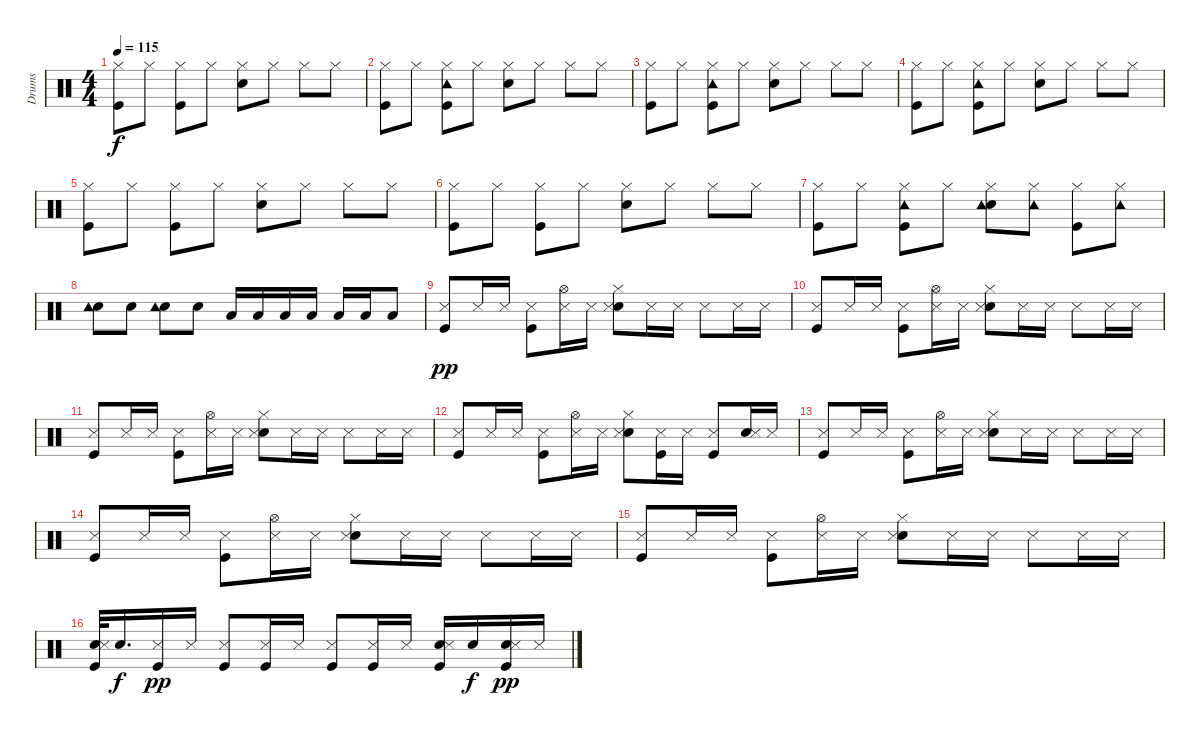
\track ("Drums" "Drums") {instrument percussion}
\staff {score}
\articulation defaults
\ts (4 4)
\tempo 115
\clef neutral
\ks c
("Hi-Hat (closed)" "Kick (hit)").8{dy f} "Hi-Hat (closed)".8 ("Hi-Hat (closed)" "Kick (hit)").8 "Hi-Hat (closed)".8 ("Hi-Hat (closed)" "Snare (hit) 2").8 "Hi-Hat (closed)".8 "Hi-Hat (closed)".8 "Hi-Hat (closed)".8 |
("Hi-Hat (closed)" "Kick (hit)").8 "Hi-Hat (closed)".8 ("Hi-Hat (closed)" "Tambourine (hit)" "Kick (hit)").8 "Hi-Hat (closed)".8 ("Hi-Hat (closed)" "Snare (hit) 2").8 "Hi-Hat (closed)".8 "Hi-Hat (closed)".8 "Hi-Hat (closed)".8 |
("Hi-Hat (closed)" "Kick (hit)").8 "Hi-Hat (closed)".8 ("Hi-Hat (closed)" "Tambourine (hit)" "Kick (hit)").8 "Hi-Hat (closed)".8 ("Hi-Hat (closed)" "Snare (hit) 2").8 "Hi-Hat (closed)".8 "Hi-Hat (closed)".8 "Hi-Hat (closed)".8 |
("Hi-Hat (closed)" "Kick (hit)").8 "Hi-Hat (closed)".8 ("Hi-Hat (closed)" "Tambourine (hit)" "Kick (hit)").8 "Hi-Hat (closed)".8 ("Hi-Hat (closed)" "Snare (hit) 2").8 "Hi-Hat (closed)".8 "Hi-Hat (closed)".8 "Hi-Hat (closed)".8 |
("Hi-Hat (closed)" "Kick (hit)").8 "Hi-Hat (closed)".8 ("Hi-Hat (closed)" "Kick (hit)").8 "Hi-Hat (closed)".8 ("Hi-Hat (closed)" "Snare (hit) 2").8 "Hi-Hat (closed)".8 "Hi-Hat (closed)".8 "Hi-Hat (closed)".8 |
("Hi-Hat (closed)" "Kick (hit)").8 "Hi-Hat (closed)".8 ("Hi-Hat (closed)" "Kick (hit)").8 "Hi-Hat (closed)".8 ("Hi-Hat (closed)" "Snare (hit) 2").8 "Hi-Hat (closed)".8 "Hi-Hat (closed)".8 "Hi-Hat (closed)".8 |
("Hi-Hat (closed)" "Kick (hit)").8 "Hi-Hat (closed)".8 ("Hi-Hat (closed)" "Tambourine (hit)" "Kick (hit)").8 "Hi-Hat (closed)".8 ("Hi-Hat (closed)" "Snare (hit) 2" "Tambourine (hit)").8 ("Hi-Hat (closed)" "Tambourine (hit)").8 ("Hi-Hat (closed)" "Kick (hit)").8 ("Hi-Hat (closed)" "Tambourine (hit)").8 |
("Snare (hit) 2" "Tambourine (hit)").8 "Snare (hit) 2".8 ("Snare (hit) 2" "Tambourine (hit)").8 "Snare (hit) 2".8 "Low Floor Tom (hit)".16 "Low Floor Tom (hit)".16 "Low Floor Tom (hit)".16 "Low Floor Tom (hit)".16 "Low Floor Tom (hit)".16 "Low Floor Tom (hit)".16 "Low Floor Tom (hit)".8 |
("Snare (side stick) 3" "Kick (hit)").8{dy pp} "Snare (side stick) 3".16 "Snare (side stick) 3".16 ("Snare (side stick) 3" "Kick (hit)").8 ("Hi-Hat (open)" "Snare (side stick) 3").16 "Snare (side stick) 3".16 ("Hi-Hat (closed)" "Snare (hit) 2" "Snare (side stick) 3").8 "Snare (side stick) 3".16 "Snare (side stick) 3".16 "Snare (side stick) 3".8 "Snare (side stick) 3".16 "Snare (side stick) 3".16 |
("Snare (side stick) 3" "Kick (hit)").8 "Snare (side stick) 3".16 "Snare (side stick) 3".16 ("Snare (side stick) 3" "Kick (hit)").8 ("Hi-Hat (open)" "Snare (side stick) 3").16 "Snare (side stick) 3".16 ("Hi-Hat (closed)" "Snare (hit) 2" "Snare (side stick) 3").8 "Snare (side stick) 3".16 "Snare (side stick) 3".16 "Snare (side stick) 3".8 "Snare (side stick) 3".16 "Snare (side stick) 3".16 |
("Snare (side stick) 3" "Kick (hit)").8 "Snare (side stick) 3".16 "Snare (side stick) 3".16 ("Snare (side stick) 3" "Kick (hit)").8 ("Hi-Hat (open)" "Snare (side stick) 3").16 "Snare (side stick) 3".16 ("Hi-Hat (closed)" "Snare (hit) 2" "Snare (side stick) 3").8 "Snare (side stick) 3".16 "Snare (side stick) 3".16 "Snare (side stick) 3".8 "Snare (side stick) 3".16 "Snare (side stick) 3".16 |
("Snare (side stick) 3" "Kick (hit)").8 "Snare (side stick) 3".16 "Snare (side stick) 3".16 ("Snare (side stick) 3" "Kick (hit)").8 ("Hi-Hat (open)" "Snare (side stick) 3").16 "Snare (side stick) 3".16 ("Hi-Hat (closed)" "Snare (hit) 2" "Snare (side stick) 3").8 ("Snare (side stick) 3" "Kick (hit)").16 "Snare (side stick) 3".16 ("Snare (side stick) 3" "Kick (hit)").8 ("Snare (hit) 2" "Snare (side stick) 3").16 "Snare (side stick) 3".16 |
("Snare (side stick) 3" "Kick (hit)").8 "Snare (side stick) 3".16 "Snare (side stick) 3".16 ("Snare (side stick) 3" "Kick (hit)").8 ("Hi-Hat (open)" "Snare (side stick) 3").16 "Snare (side stick) 3".16 ("Hi-Hat (closed)" "Snare (hit) 2" "Snare (side stick) 3").8 "Snare (side stick) 3".16 "Snare (side stick) 3".16 "Snare (side stick) 3".8 "Snare (side stick) 3".16 "Snare (side stick) 3".16 |
("Snare (side stick) 3" "Kick (hit)").8 "Snare (side stick) 3".16 "Snare (side stick) 3".16 ("Snare (side stick) 3" "Kick (hit)").8 ("Hi-Hat (open)" "Snare (side stick) 3").16 "Snare (side stick) 3".16 ("Hi-Hat (closed)" "Snare (hit) 2" "Snare (side stick) 3").8 "Snare (side stick) 3".16 "Snare (side stick) 3".16 "Snare (side stick) 3".8 "Snare (side stick) 3".16 "Snare (side stick) 3".16 |
("Snare (side stick) 3" "Kick (hit)").8 "Snare (side stick) 3".16 "Snare (side stick) 3".16 ("Snare (side stick) 3" "Kick (hit)").8 ("Hi-Hat (open)" "Snare (side stick) 3").16 "Snare (side stick) 3".16 ("Hi-Hat (closed)" "Snare (hit) 2" "Snare (side stick) 3").8 "Snare (side stick) 3".16 "Snare (side stick) 3".16 "Snare (side stick) 3".8 "Snare (side stick) 3".16 "Snare (side stick) 3".16 |
("Snare (hit) 2" "Snare (side stick) 3" "Kick (hit)").32 "Snare (hit) 2".16{d dy f} ("Snare (side stick) 3" "Kick (hit)").16{dy pp} "Snare (side stick) 3".16 ("Snare (side stick) 3" "Kick (hit)").8 ("Snare (side stick) 3" "Kick (hit)").16 "Snare (side stick) 3".16 ("Snare (side stick) 3" "Kick (hit)").8 ("Snare (side stick) 3" "Kick (hit)").16 "Snare (side stick) 3".16 ("Snare (hit) 2" "Snare (side stick) 3" "Kick (hit)").16 "Snare (hit) 2".16{dy f} ("Snare (hit) 2" "Snare (side stick) 3" "Kick (hit)").16{dy pp} "Snare (side stick) 3".16
